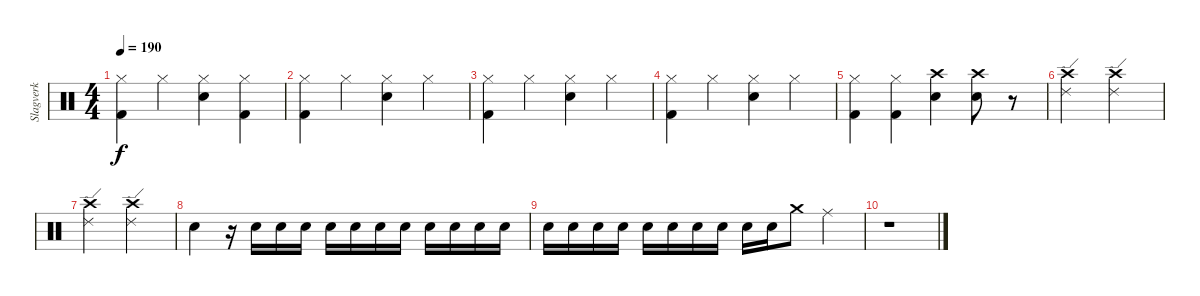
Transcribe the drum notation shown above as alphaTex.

\track ("Slagverk" "Slagverk") {instrument percussion}
\staff {score}
\articulation defaults
\ts (4 4)
\tempo 190
\clef neutral
\ks c
("Hi-Hat (closed)" "Kick (hit) 2").4{dy f} "Hi-Hat (closed)".4 ("Hi-Hat (closed)" "Snare (hit) 2").4 ("Hi-Hat (closed)" "Kick (hit) 2").4 |
("Hi-Hat (closed)" "Kick (hit) 2").4 "Hi-Hat (closed)".4 ("Hi-Hat (closed)" "Snare (hit) 2").4 "Hi-Hat (closed)".4 |
("Hi-Hat (closed)" "Kick (hit) 2").4 "Hi-Hat (closed)".4 ("Hi-Hat (closed)" "Snare (hit) 2").4 "Hi-Hat (closed)".4 |
("Hi-Hat (closed)" "Kick (hit) 2").4 "Hi-Hat (closed)".4 ("Hi-Hat (closed)" "Snare (hit) 2").4 "Hi-Hat (closed)".4 |
("Hi-Hat (closed)" "Kick (hit) 2").4 ("Hi-Hat (closed)" "Kick (hit) 2").4 ("Crash high (hit)" "Snare (hit) 2").4 ("Crash high (hit)" "Snare (hit) 2").8 r.8 |
("Ride (edge) 2" "Crash high (hit)").2 ("Ride (edge) 2" "Crash high (hit)").2 |
("Ride (edge) 2" "Crash high (hit)").2 ("Ride (edge) 2" "Crash high (hit)").2 |
"Snare (hit) 2".4 r.16 "Snare (hit) 2".16 "Snare (hit) 2".16 "Snare (hit) 2".16 "Snare (hit) 2".16 "Snare (hit) 2".16 "Snare (hit) 2".16 "Snare (hit) 2".16 "Snare (hit) 2".16 "Snare (hit) 2".16 "Snare (hit) 2".16 "Snare (hit) 2".16 |
"Snare (hit) 2".16 "Snare (hit) 2".16 "Snare (hit) 2".16 "Snare (hit) 2".16 "Snare (hit) 2".16 "Snare (hit) 2".16 "Snare (hit) 2".16 "Snare (hit) 2".16 "Snare (hit) 2".16 "Snare (hit) 2".16 "Crash medium (hit)".8 "Ride (middle)".4 |
r.1
